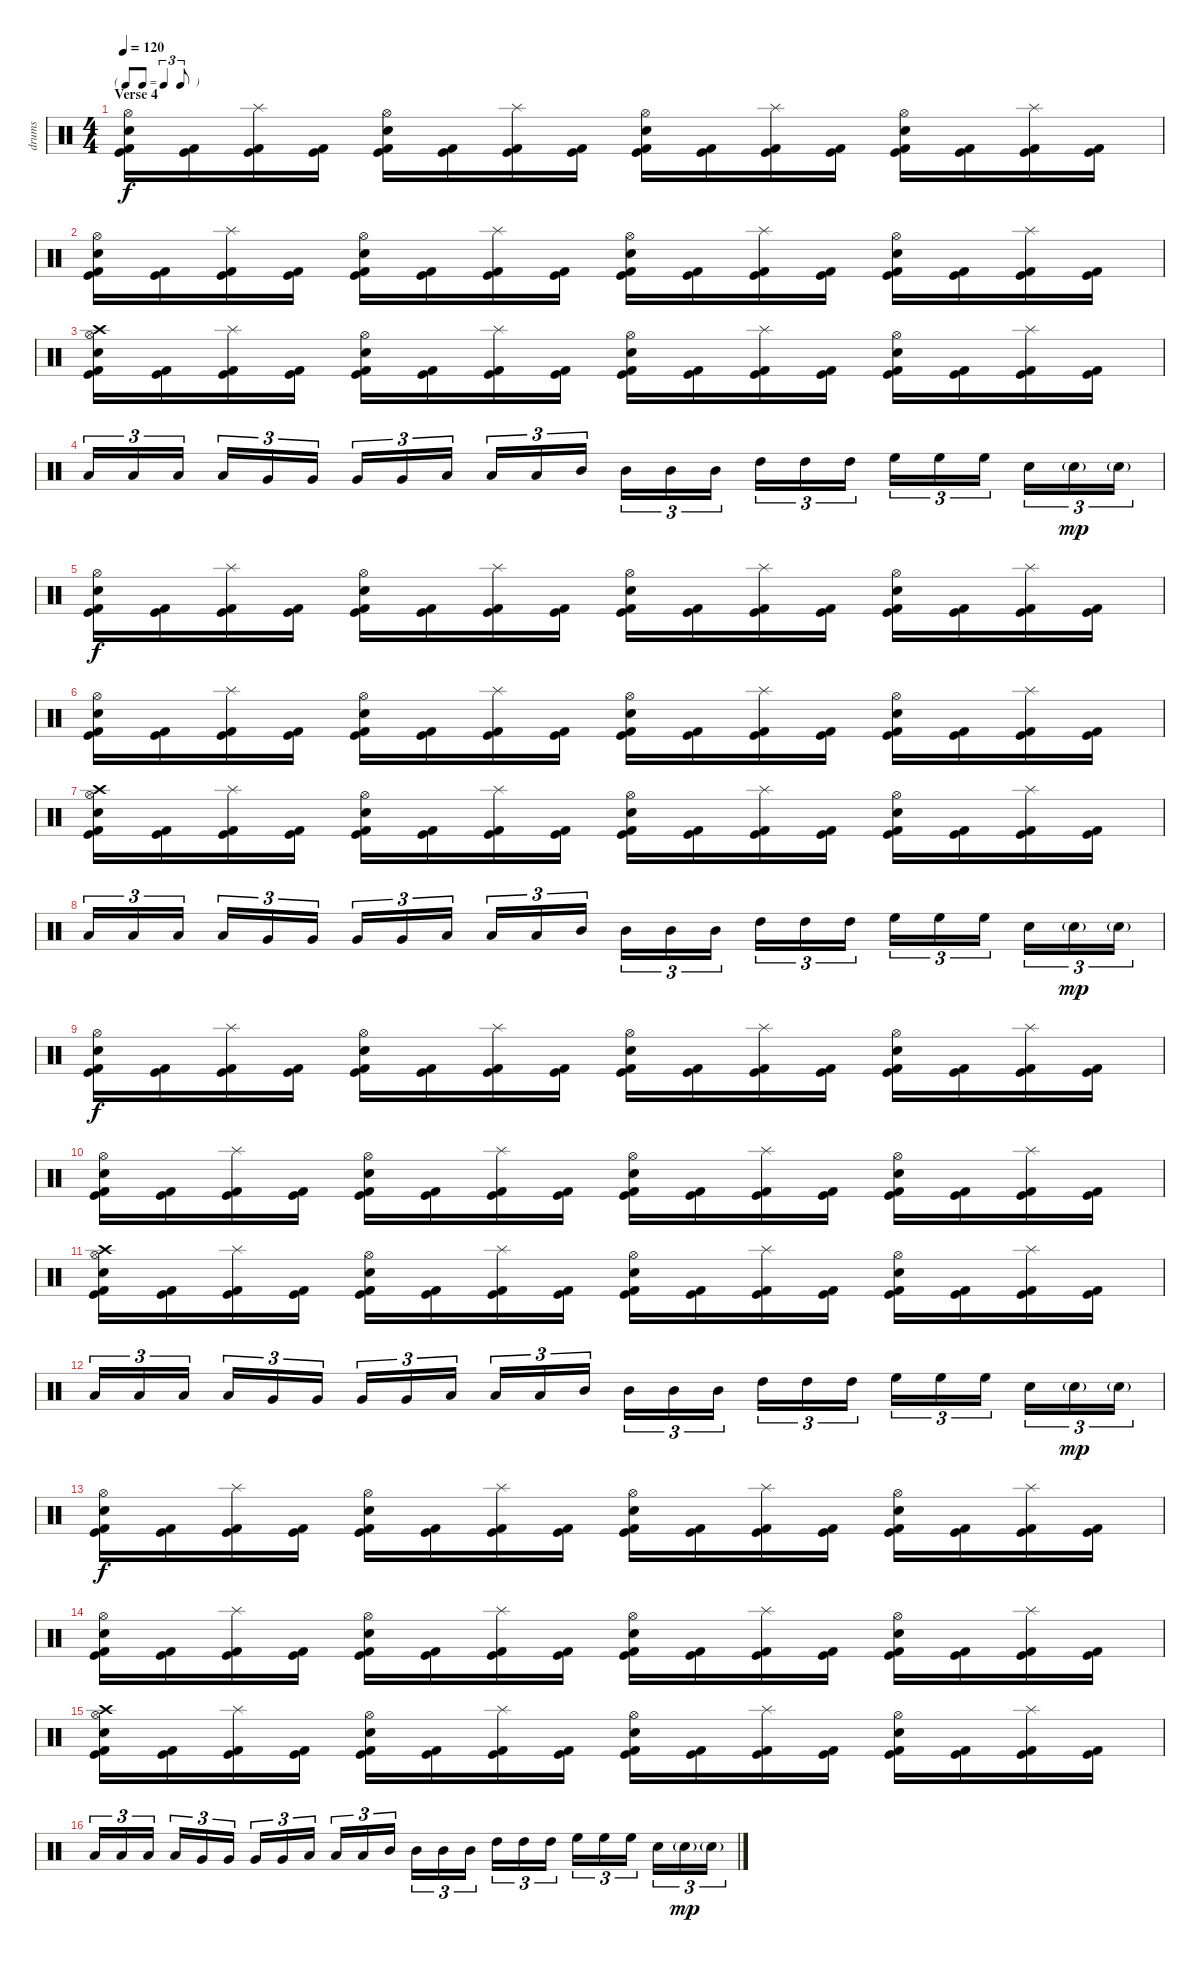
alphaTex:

\track ("drums" "drums") {instrument percussion}
\staff {score}
\articulation defaults
\ts (4 4)
\tf triplet8th
\section ("" "Verse 4")
\tempo 120
\clef neutral
\ks c
("Hi-Hat (open)" "Snare (hit) 2" "Kick (hit) 2" "Kick (hit)").16{dy f} ("Kick (hit) 2" "Kick (hit)").16 ("Splash (hit)" "Kick (hit) 2" "Kick (hit)").16 ("Kick (hit) 2" "Kick (hit)").16 ("Hi-Hat (open)" "Snare (hit) 2" "Kick (hit) 2" "Kick (hit)").16 ("Kick (hit) 2" "Kick (hit)").16 ("Splash (hit)" "Kick (hit) 2" "Kick (hit)").16 ("Kick (hit) 2" "Kick (hit)").16 ("Hi-Hat (open)" "Snare (hit) 2" "Kick (hit) 2" "Kick (hit)").16 ("Kick (hit) 2" "Kick (hit)").16 ("Splash (hit)" "Kick (hit) 2" "Kick (hit)").16 ("Kick (hit) 2" "Kick (hit)").16 ("Hi-Hat (open)" "Snare (hit) 2" "Kick (hit) 2" "Kick (hit)").16 ("Kick (hit) 2" "Kick (hit)").16 ("Splash (hit)" "Kick (hit) 2" "Kick (hit)").16 ("Kick (hit) 2" "Kick (hit)").16 |
("Hi-Hat (open)" "Snare (hit) 2" "Kick (hit) 2" "Kick (hit)").16 ("Kick (hit) 2" "Kick (hit)").16 ("Splash (hit)" "Kick (hit) 2" "Kick (hit)").16 ("Kick (hit) 2" "Kick (hit)").16 ("Hi-Hat (open)" "Snare (hit) 2" "Kick (hit) 2" "Kick (hit)").16 ("Kick (hit) 2" "Kick (hit)").16 ("Splash (hit)" "Kick (hit) 2" "Kick (hit)").16 ("Kick (hit) 2" "Kick (hit)").16 ("Hi-Hat (open)" "Snare (hit) 2" "Kick (hit) 2" "Kick (hit)").16 ("Kick (hit) 2" "Kick (hit)").16 ("Splash (hit)" "Kick (hit) 2" "Kick (hit)").16 ("Kick (hit) 2" "Kick (hit)").16 ("Hi-Hat (open)" "Snare (hit) 2" "Kick (hit) 2" "Kick (hit)").16 ("Kick (hit) 2" "Kick (hit)").16 ("Splash (hit)" "Kick (hit) 2" "Kick (hit)").16 ("Kick (hit) 2" "Kick (hit)").16 |
("Crash high (hit)" "Hi-Hat (open)" "Snare (hit) 2" "Kick (hit) 2" "Kick (hit)").16 ("Kick (hit) 2" "Kick (hit)").16 ("Splash (hit)" "Kick (hit) 2" "Kick (hit)").16 ("Kick (hit) 2" "Kick (hit)").16 ("Hi-Hat (open)" "Snare (hit) 2" "Kick (hit) 2" "Kick (hit)").16 ("Kick (hit) 2" "Kick (hit)").16 ("Splash (hit)" "Kick (hit) 2" "Kick (hit)").16 ("Kick (hit) 2" "Kick (hit)").16 ("Hi-Hat (open)" "Snare (hit) 2" "Kick (hit) 2" "Kick (hit)").16 ("Kick (hit) 2" "Kick (hit)").16 ("Splash (hit)" "Kick (hit) 2" "Kick (hit)").16 ("Kick (hit) 2" "Kick (hit)").16 ("Hi-Hat (open)" "Snare (hit) 2" "Kick (hit) 2" "Kick (hit)").16 ("Kick (hit) 2" "Kick (hit)").16 ("Splash (hit)" "Kick (hit) 2" "Kick (hit)").16 ("Kick (hit) 2" "Kick (hit)").16 |
"Low Floor Tom (hit)".16{tu (3 2)} "Low Floor Tom (hit)".16{tu (3 2)} "Low Floor Tom (hit)".16{tu (3 2)} "Low Floor Tom (hit)".16{tu (3 2)} "Very Low Tom (hit)".16{tu (3 2)} "Very Low Tom (hit)".16{tu (3 2)} "Very Low Tom (hit)".16{tu (3 2)} "Very Low Tom (hit)".16{tu (3 2)} "Low Tom (hit)".16{tu (3 2)} "Low Tom (hit)".16{tu (3 2)} "Low Tom (hit)".16{tu (3 2)} "Mid Tom (hit)".16{tu (3 2)} "Mid Tom (hit)".16{tu (3 2)} "Mid Tom (hit)".16{tu (3 2)} "Mid Tom (hit)".16{tu (3 2)} "High Tom (hit)".16{tu (3 2)} "High Tom (hit)".16{tu (3 2)} "High Tom (hit)".16{tu (3 2)} "High Floor Tom (hit)".16{tu (3 2)} "High Floor Tom (hit)".16{tu (3 2)} "High Floor Tom (hit)".16{tu (3 2)} "Electric Snare (hit)".16{tu (3 2)} "Snare (hit) 2"{g}.16{tu (3 2) dy mp} "Snare (hit) 2"{g}.16{tu (3 2)} |
("Hi-Hat (open)" "Snare (hit) 2" "Kick (hit) 2" "Kick (hit)").16{dy f} ("Kick (hit) 2" "Kick (hit)").16 ("Splash (hit)" "Kick (hit) 2" "Kick (hit)").16 ("Kick (hit) 2" "Kick (hit)").16 ("Hi-Hat (open)" "Snare (hit) 2" "Kick (hit) 2" "Kick (hit)").16 ("Kick (hit) 2" "Kick (hit)").16 ("Splash (hit)" "Kick (hit) 2" "Kick (hit)").16 ("Kick (hit) 2" "Kick (hit)").16 ("Hi-Hat (open)" "Snare (hit) 2" "Kick (hit) 2" "Kick (hit)").16 ("Kick (hit) 2" "Kick (hit)").16 ("Splash (hit)" "Kick (hit) 2" "Kick (hit)").16 ("Kick (hit) 2" "Kick (hit)").16 ("Hi-Hat (open)" "Snare (hit) 2" "Kick (hit) 2" "Kick (hit)").16 ("Kick (hit) 2" "Kick (hit)").16 ("Splash (hit)" "Kick (hit) 2" "Kick (hit)").16 ("Kick (hit) 2" "Kick (hit)").16 |
("Hi-Hat (open)" "Snare (hit) 2" "Kick (hit) 2" "Kick (hit)").16 ("Kick (hit) 2" "Kick (hit)").16 ("Splash (hit)" "Kick (hit) 2" "Kick (hit)").16 ("Kick (hit) 2" "Kick (hit)").16 ("Hi-Hat (open)" "Snare (hit) 2" "Kick (hit) 2" "Kick (hit)").16 ("Kick (hit) 2" "Kick (hit)").16 ("Splash (hit)" "Kick (hit) 2" "Kick (hit)").16 ("Kick (hit) 2" "Kick (hit)").16 ("Hi-Hat (open)" "Snare (hit) 2" "Kick (hit) 2" "Kick (hit)").16 ("Kick (hit) 2" "Kick (hit)").16 ("Splash (hit)" "Kick (hit) 2" "Kick (hit)").16 ("Kick (hit) 2" "Kick (hit)").16 ("Hi-Hat (open)" "Snare (hit) 2" "Kick (hit) 2" "Kick (hit)").16 ("Kick (hit) 2" "Kick (hit)").16 ("Splash (hit)" "Kick (hit) 2" "Kick (hit)").16 ("Kick (hit) 2" "Kick (hit)").16 |
("Crash high (hit)" "Hi-Hat (open)" "Snare (hit) 2" "Kick (hit) 2" "Kick (hit)").16 ("Kick (hit) 2" "Kick (hit)").16 ("Splash (hit)" "Kick (hit) 2" "Kick (hit)").16 ("Kick (hit) 2" "Kick (hit)").16 ("Hi-Hat (open)" "Snare (hit) 2" "Kick (hit) 2" "Kick (hit)").16 ("Kick (hit) 2" "Kick (hit)").16 ("Splash (hit)" "Kick (hit) 2" "Kick (hit)").16 ("Kick (hit) 2" "Kick (hit)").16 ("Hi-Hat (open)" "Snare (hit) 2" "Kick (hit) 2" "Kick (hit)").16 ("Kick (hit) 2" "Kick (hit)").16 ("Splash (hit)" "Kick (hit) 2" "Kick (hit)").16 ("Kick (hit) 2" "Kick (hit)").16 ("Hi-Hat (open)" "Snare (hit) 2" "Kick (hit) 2" "Kick (hit)").16 ("Kick (hit) 2" "Kick (hit)").16 ("Splash (hit)" "Kick (hit) 2" "Kick (hit)").16 ("Kick (hit) 2" "Kick (hit)").16 |
"Low Floor Tom (hit)".16{tu (3 2)} "Low Floor Tom (hit)".16{tu (3 2)} "Low Floor Tom (hit)".16{tu (3 2)} "Low Floor Tom (hit)".16{tu (3 2)} "Very Low Tom (hit)".16{tu (3 2)} "Very Low Tom (hit)".16{tu (3 2)} "Very Low Tom (hit)".16{tu (3 2)} "Very Low Tom (hit)".16{tu (3 2)} "Low Tom (hit)".16{tu (3 2)} "Low Tom (hit)".16{tu (3 2)} "Low Tom (hit)".16{tu (3 2)} "Mid Tom (hit)".16{tu (3 2)} "Mid Tom (hit)".16{tu (3 2)} "Mid Tom (hit)".16{tu (3 2)} "Mid Tom (hit)".16{tu (3 2)} "High Tom (hit)".16{tu (3 2)} "High Tom (hit)".16{tu (3 2)} "High Tom (hit)".16{tu (3 2)} "High Floor Tom (hit)".16{tu (3 2)} "High Floor Tom (hit)".16{tu (3 2)} "High Floor Tom (hit)".16{tu (3 2)} "Electric Snare (hit)".16{tu (3 2)} "Snare (hit) 2"{g}.16{tu (3 2) dy mp} "Snare (hit) 2"{g}.16{tu (3 2)} |
("Hi-Hat (open)" "Snare (hit) 2" "Kick (hit) 2" "Kick (hit)").16{dy f} ("Kick (hit) 2" "Kick (hit)").16 ("Splash (hit)" "Kick (hit) 2" "Kick (hit)").16 ("Kick (hit) 2" "Kick (hit)").16 ("Hi-Hat (open)" "Snare (hit) 2" "Kick (hit) 2" "Kick (hit)").16 ("Kick (hit) 2" "Kick (hit)").16 ("Splash (hit)" "Kick (hit) 2" "Kick (hit)").16 ("Kick (hit) 2" "Kick (hit)").16 ("Hi-Hat (open)" "Snare (hit) 2" "Kick (hit) 2" "Kick (hit)").16 ("Kick (hit) 2" "Kick (hit)").16 ("Splash (hit)" "Kick (hit) 2" "Kick (hit)").16 ("Kick (hit) 2" "Kick (hit)").16 ("Hi-Hat (open)" "Snare (hit) 2" "Kick (hit) 2" "Kick (hit)").16 ("Kick (hit) 2" "Kick (hit)").16 ("Splash (hit)" "Kick (hit) 2" "Kick (hit)").16 ("Kick (hit) 2" "Kick (hit)").16 |
("Hi-Hat (open)" "Snare (hit) 2" "Kick (hit) 2" "Kick (hit)").16 ("Kick (hit) 2" "Kick (hit)").16 ("Splash (hit)" "Kick (hit) 2" "Kick (hit)").16 ("Kick (hit) 2" "Kick (hit)").16 ("Hi-Hat (open)" "Snare (hit) 2" "Kick (hit) 2" "Kick (hit)").16 ("Kick (hit) 2" "Kick (hit)").16 ("Splash (hit)" "Kick (hit) 2" "Kick (hit)").16 ("Kick (hit) 2" "Kick (hit)").16 ("Hi-Hat (open)" "Snare (hit) 2" "Kick (hit) 2" "Kick (hit)").16 ("Kick (hit) 2" "Kick (hit)").16 ("Splash (hit)" "Kick (hit) 2" "Kick (hit)").16 ("Kick (hit) 2" "Kick (hit)").16 ("Hi-Hat (open)" "Snare (hit) 2" "Kick (hit) 2" "Kick (hit)").16 ("Kick (hit) 2" "Kick (hit)").16 ("Splash (hit)" "Kick (hit) 2" "Kick (hit)").16 ("Kick (hit) 2" "Kick (hit)").16 |
("Crash high (hit)" "Hi-Hat (open)" "Snare (hit) 2" "Kick (hit) 2" "Kick (hit)").16 ("Kick (hit) 2" "Kick (hit)").16 ("Splash (hit)" "Kick (hit) 2" "Kick (hit)").16 ("Kick (hit) 2" "Kick (hit)").16 ("Hi-Hat (open)" "Snare (hit) 2" "Kick (hit) 2" "Kick (hit)").16 ("Kick (hit) 2" "Kick (hit)").16 ("Splash (hit)" "Kick (hit) 2" "Kick (hit)").16 ("Kick (hit) 2" "Kick (hit)").16 ("Hi-Hat (open)" "Snare (hit) 2" "Kick (hit) 2" "Kick (hit)").16 ("Kick (hit) 2" "Kick (hit)").16 ("Splash (hit)" "Kick (hit) 2" "Kick (hit)").16 ("Kick (hit) 2" "Kick (hit)").16 ("Hi-Hat (open)" "Snare (hit) 2" "Kick (hit) 2" "Kick (hit)").16 ("Kick (hit) 2" "Kick (hit)").16 ("Splash (hit)" "Kick (hit) 2" "Kick (hit)").16 ("Kick (hit) 2" "Kick (hit)").16 |
"Low Floor Tom (hit)".16{tu (3 2)} "Low Floor Tom (hit)".16{tu (3 2)} "Low Floor Tom (hit)".16{tu (3 2)} "Low Floor Tom (hit)".16{tu (3 2)} "Very Low Tom (hit)".16{tu (3 2)} "Very Low Tom (hit)".16{tu (3 2)} "Very Low Tom (hit)".16{tu (3 2)} "Very Low Tom (hit)".16{tu (3 2)} "Low Tom (hit)".16{tu (3 2)} "Low Tom (hit)".16{tu (3 2)} "Low Tom (hit)".16{tu (3 2)} "Mid Tom (hit)".16{tu (3 2)} "Mid Tom (hit)".16{tu (3 2)} "Mid Tom (hit)".16{tu (3 2)} "Mid Tom (hit)".16{tu (3 2)} "High Tom (hit)".16{tu (3 2)} "High Tom (hit)".16{tu (3 2)} "High Tom (hit)".16{tu (3 2)} "High Floor Tom (hit)".16{tu (3 2)} "High Floor Tom (hit)".16{tu (3 2)} "High Floor Tom (hit)".16{tu (3 2)} "Electric Snare (hit)".16{tu (3 2)} "Snare (hit) 2"{g}.16{tu (3 2) dy mp} "Snare (hit) 2"{g}.16{tu (3 2)} |
("Hi-Hat (open)" "Snare (hit) 2" "Kick (hit) 2" "Kick (hit)").16{dy f} ("Kick (hit) 2" "Kick (hit)").16 ("Splash (hit)" "Kick (hit) 2" "Kick (hit)").16 ("Kick (hit) 2" "Kick (hit)").16 ("Hi-Hat (open)" "Snare (hit) 2" "Kick (hit) 2" "Kick (hit)").16 ("Kick (hit) 2" "Kick (hit)").16 ("Splash (hit)" "Kick (hit) 2" "Kick (hit)").16 ("Kick (hit) 2" "Kick (hit)").16 ("Hi-Hat (open)" "Snare (hit) 2" "Kick (hit) 2" "Kick (hit)").16 ("Kick (hit) 2" "Kick (hit)").16 ("Splash (hit)" "Kick (hit) 2" "Kick (hit)").16 ("Kick (hit) 2" "Kick (hit)").16 ("Hi-Hat (open)" "Snare (hit) 2" "Kick (hit) 2" "Kick (hit)").16 ("Kick (hit) 2" "Kick (hit)").16 ("Splash (hit)" "Kick (hit) 2" "Kick (hit)").16 ("Kick (hit) 2" "Kick (hit)").16 |
("Hi-Hat (open)" "Snare (hit) 2" "Kick (hit) 2" "Kick (hit)").16 ("Kick (hit) 2" "Kick (hit)").16 ("Splash (hit)" "Kick (hit) 2" "Kick (hit)").16 ("Kick (hit) 2" "Kick (hit)").16 ("Hi-Hat (open)" "Snare (hit) 2" "Kick (hit) 2" "Kick (hit)").16 ("Kick (hit) 2" "Kick (hit)").16 ("Splash (hit)" "Kick (hit) 2" "Kick (hit)").16 ("Kick (hit) 2" "Kick (hit)").16 ("Hi-Hat (open)" "Snare (hit) 2" "Kick (hit) 2" "Kick (hit)").16 ("Kick (hit) 2" "Kick (hit)").16 ("Splash (hit)" "Kick (hit) 2" "Kick (hit)").16 ("Kick (hit) 2" "Kick (hit)").16 ("Hi-Hat (open)" "Snare (hit) 2" "Kick (hit) 2" "Kick (hit)").16 ("Kick (hit) 2" "Kick (hit)").16 ("Splash (hit)" "Kick (hit) 2" "Kick (hit)").16 ("Kick (hit) 2" "Kick (hit)").16 |
("Crash high (hit)" "Hi-Hat (open)" "Snare (hit) 2" "Kick (hit) 2" "Kick (hit)").16 ("Kick (hit) 2" "Kick (hit)").16 ("Splash (hit)" "Kick (hit) 2" "Kick (hit)").16 ("Kick (hit) 2" "Kick (hit)").16 ("Hi-Hat (open)" "Snare (hit) 2" "Kick (hit) 2" "Kick (hit)").16 ("Kick (hit) 2" "Kick (hit)").16 ("Splash (hit)" "Kick (hit) 2" "Kick (hit)").16 ("Kick (hit) 2" "Kick (hit)").16 ("Hi-Hat (open)" "Snare (hit) 2" "Kick (hit) 2" "Kick (hit)").16 ("Kick (hit) 2" "Kick (hit)").16 ("Splash (hit)" "Kick (hit) 2" "Kick (hit)").16 ("Kick (hit) 2" "Kick (hit)").16 ("Hi-Hat (open)" "Snare (hit) 2" "Kick (hit) 2" "Kick (hit)").16 ("Kick (hit) 2" "Kick (hit)").16 ("Splash (hit)" "Kick (hit) 2" "Kick (hit)").16 ("Kick (hit) 2" "Kick (hit)").16 |
"Low Floor Tom (hit)".16{tu (3 2)} "Low Floor Tom (hit)".16{tu (3 2)} "Low Floor Tom (hit)".16{tu (3 2)} "Low Floor Tom (hit)".16{tu (3 2)} "Very Low Tom (hit)".16{tu (3 2)} "Very Low Tom (hit)".16{tu (3 2)} "Very Low Tom (hit)".16{tu (3 2)} "Very Low Tom (hit)".16{tu (3 2)} "Low Tom (hit)".16{tu (3 2)} "Low Tom (hit)".16{tu (3 2)} "Low Tom (hit)".16{tu (3 2)} "Mid Tom (hit)".16{tu (3 2)} "Mid Tom (hit)".16{tu (3 2)} "Mid Tom (hit)".16{tu (3 2)} "Mid Tom (hit)".16{tu (3 2)} "High Tom (hit)".16{tu (3 2)} "High Tom (hit)".16{tu (3 2)} "High Tom (hit)".16{tu (3 2)} "High Floor Tom (hit)".16{tu (3 2)} "High Floor Tom (hit)".16{tu (3 2)} "High Floor Tom (hit)".16{tu (3 2)} "Electric Snare (hit)".16{tu (3 2)} "Snare (hit) 2"{g}.16{tu (3 2) dy mp} "Snare (hit) 2"{g}.16{tu (3 2)}
